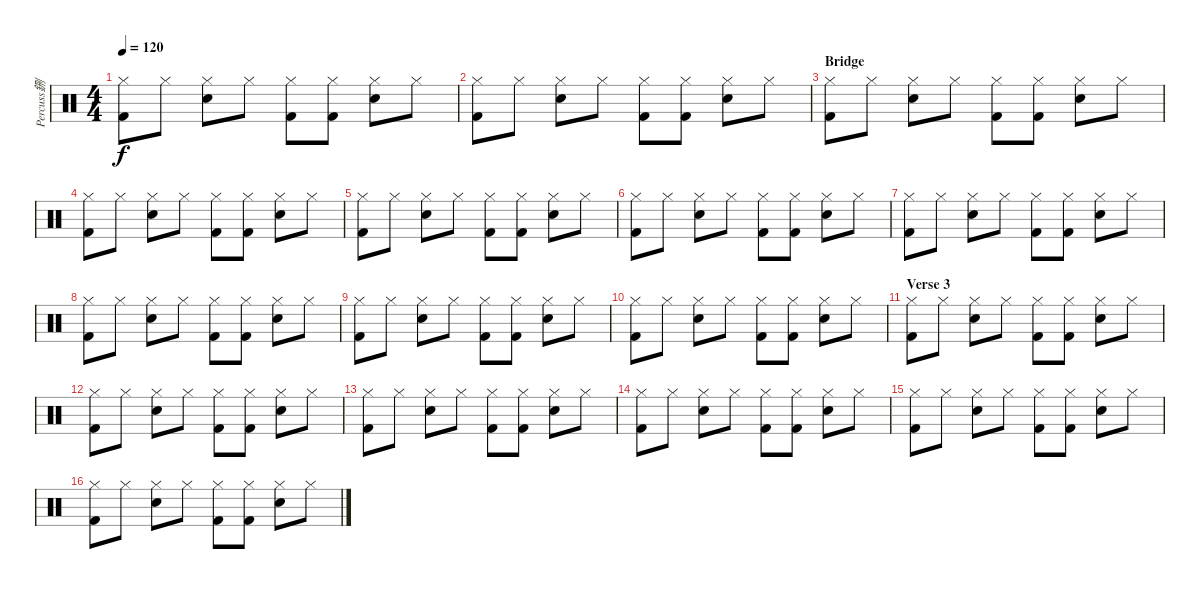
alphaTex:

\track ("Percuss鉶" "Percuss鉶") {instrument percussion}
\staff {score}
\articulation defaults
\ts (4 4)
\tempo 120
\clef neutral
\ks c
("Hi-Hat (closed)" "Kick (hit) 2").8{dy f} "Hi-Hat (closed)".8 ("Hi-Hat (closed)" "Snare (hit) 2").8 "Hi-Hat (closed)".8 ("Hi-Hat (closed)" "Kick (hit) 2").8 ("Hi-Hat (closed)" "Kick (hit) 2").8 ("Hi-Hat (closed)" "Snare (hit) 2").8 "Hi-Hat (closed)".8 |
("Hi-Hat (closed)" "Kick (hit) 2").8 "Hi-Hat (closed)".8 ("Hi-Hat (closed)" "Snare (hit) 2").8 "Hi-Hat (closed)".8 ("Hi-Hat (closed)" "Kick (hit) 2").8 ("Hi-Hat (closed)" "Kick (hit) 2").8 ("Hi-Hat (closed)" "Snare (hit) 2").8 "Hi-Hat (closed)".8 |
\section ("" "Bridge")
("Hi-Hat (closed)" "Kick (hit) 2").8 "Hi-Hat (closed)".8 ("Hi-Hat (closed)" "Snare (hit) 2").8 "Hi-Hat (closed)".8 ("Hi-Hat (closed)" "Kick (hit) 2").8 ("Hi-Hat (closed)" "Kick (hit) 2").8 ("Hi-Hat (closed)" "Snare (hit) 2").8 "Hi-Hat (closed)".8 |
("Hi-Hat (closed)" "Kick (hit) 2").8 "Hi-Hat (closed)".8 ("Hi-Hat (closed)" "Snare (hit) 2").8 "Hi-Hat (closed)".8 ("Hi-Hat (closed)" "Kick (hit) 2").8 ("Hi-Hat (closed)" "Kick (hit) 2").8 ("Hi-Hat (closed)" "Snare (hit) 2").8 "Hi-Hat (closed)".8 |
("Hi-Hat (closed)" "Kick (hit) 2").8 "Hi-Hat (closed)".8 ("Hi-Hat (closed)" "Snare (hit) 2").8 "Hi-Hat (closed)".8 ("Hi-Hat (closed)" "Kick (hit) 2").8 ("Hi-Hat (closed)" "Kick (hit) 2").8 ("Hi-Hat (closed)" "Snare (hit) 2").8 "Hi-Hat (closed)".8 |
("Hi-Hat (closed)" "Kick (hit) 2").8 "Hi-Hat (closed)".8 ("Hi-Hat (closed)" "Snare (hit) 2").8 "Hi-Hat (closed)".8 ("Hi-Hat (closed)" "Kick (hit) 2").8 ("Hi-Hat (closed)" "Kick (hit) 2").8 ("Hi-Hat (closed)" "Snare (hit) 2").8 "Hi-Hat (closed)".8 |
("Hi-Hat (closed)" "Kick (hit) 2").8 "Hi-Hat (closed)".8 ("Hi-Hat (closed)" "Snare (hit) 2").8 "Hi-Hat (closed)".8 ("Hi-Hat (closed)" "Kick (hit) 2").8 ("Hi-Hat (closed)" "Kick (hit) 2").8 ("Hi-Hat (closed)" "Snare (hit) 2").8 "Hi-Hat (closed)".8 |
("Hi-Hat (closed)" "Kick (hit) 2").8 "Hi-Hat (closed)".8 ("Hi-Hat (closed)" "Snare (hit) 2").8 "Hi-Hat (closed)".8 ("Hi-Hat (closed)" "Kick (hit) 2").8 ("Hi-Hat (closed)" "Kick (hit) 2").8 ("Hi-Hat (closed)" "Snare (hit) 2").8 "Hi-Hat (closed)".8 |
("Hi-Hat (closed)" "Kick (hit) 2").8 "Hi-Hat (closed)".8 ("Hi-Hat (closed)" "Snare (hit) 2").8 "Hi-Hat (closed)".8 ("Hi-Hat (closed)" "Kick (hit) 2").8 ("Hi-Hat (closed)" "Kick (hit) 2").8 ("Hi-Hat (closed)" "Snare (hit) 2").8 "Hi-Hat (closed)".8 |
("Hi-Hat (closed)" "Kick (hit) 2").8 "Hi-Hat (closed)".8 ("Hi-Hat (closed)" "Snare (hit) 2").8 "Hi-Hat (closed)".8 ("Hi-Hat (closed)" "Kick (hit) 2").8 ("Hi-Hat (closed)" "Kick (hit) 2").8 ("Hi-Hat (closed)" "Snare (hit) 2").8 "Hi-Hat (closed)".8 |
\section ("" "Verse 3")
("Hi-Hat (closed)" "Kick (hit) 2").8 "Hi-Hat (closed)".8 ("Hi-Hat (closed)" "Snare (hit) 2").8 "Hi-Hat (closed)".8 ("Hi-Hat (closed)" "Kick (hit) 2").8 ("Hi-Hat (closed)" "Kick (hit) 2").8 ("Hi-Hat (closed)" "Snare (hit) 2").8 "Hi-Hat (closed)".8 |
("Hi-Hat (closed)" "Kick (hit) 2").8 "Hi-Hat (closed)".8 ("Hi-Hat (closed)" "Snare (hit) 2").8 "Hi-Hat (closed)".8 ("Hi-Hat (closed)" "Kick (hit) 2").8 ("Hi-Hat (closed)" "Kick (hit) 2").8 ("Hi-Hat (closed)" "Snare (hit) 2").8 "Hi-Hat (closed)".8 |
("Hi-Hat (closed)" "Kick (hit) 2").8 "Hi-Hat (closed)".8 ("Hi-Hat (closed)" "Snare (hit) 2").8 "Hi-Hat (closed)".8 ("Hi-Hat (closed)" "Kick (hit) 2").8 ("Hi-Hat (closed)" "Kick (hit) 2").8 ("Hi-Hat (closed)" "Snare (hit) 2").8 "Hi-Hat (closed)".8 |
("Hi-Hat (closed)" "Kick (hit) 2").8 "Hi-Hat (closed)".8 ("Hi-Hat (closed)" "Snare (hit) 2").8 "Hi-Hat (closed)".8 ("Hi-Hat (closed)" "Kick (hit) 2").8 ("Hi-Hat (closed)" "Kick (hit) 2").8 ("Hi-Hat (closed)" "Snare (hit) 2").8 "Hi-Hat (closed)".8 |
("Hi-Hat (closed)" "Kick (hit) 2").8 "Hi-Hat (closed)".8 ("Hi-Hat (closed)" "Snare (hit) 2").8 "Hi-Hat (closed)".8 ("Hi-Hat (closed)" "Kick (hit) 2").8 ("Hi-Hat (closed)" "Kick (hit) 2").8 ("Hi-Hat (closed)" "Snare (hit) 2").8 "Hi-Hat (closed)".8 |
("Hi-Hat (closed)" "Kick (hit) 2").8 "Hi-Hat (closed)".8 ("Hi-Hat (closed)" "Snare (hit) 2").8 "Hi-Hat (closed)".8 ("Hi-Hat (closed)" "Kick (hit) 2").8 ("Hi-Hat (closed)" "Kick (hit) 2").8 ("Hi-Hat (closed)" "Snare (hit) 2").8 "Hi-Hat (closed)".8
